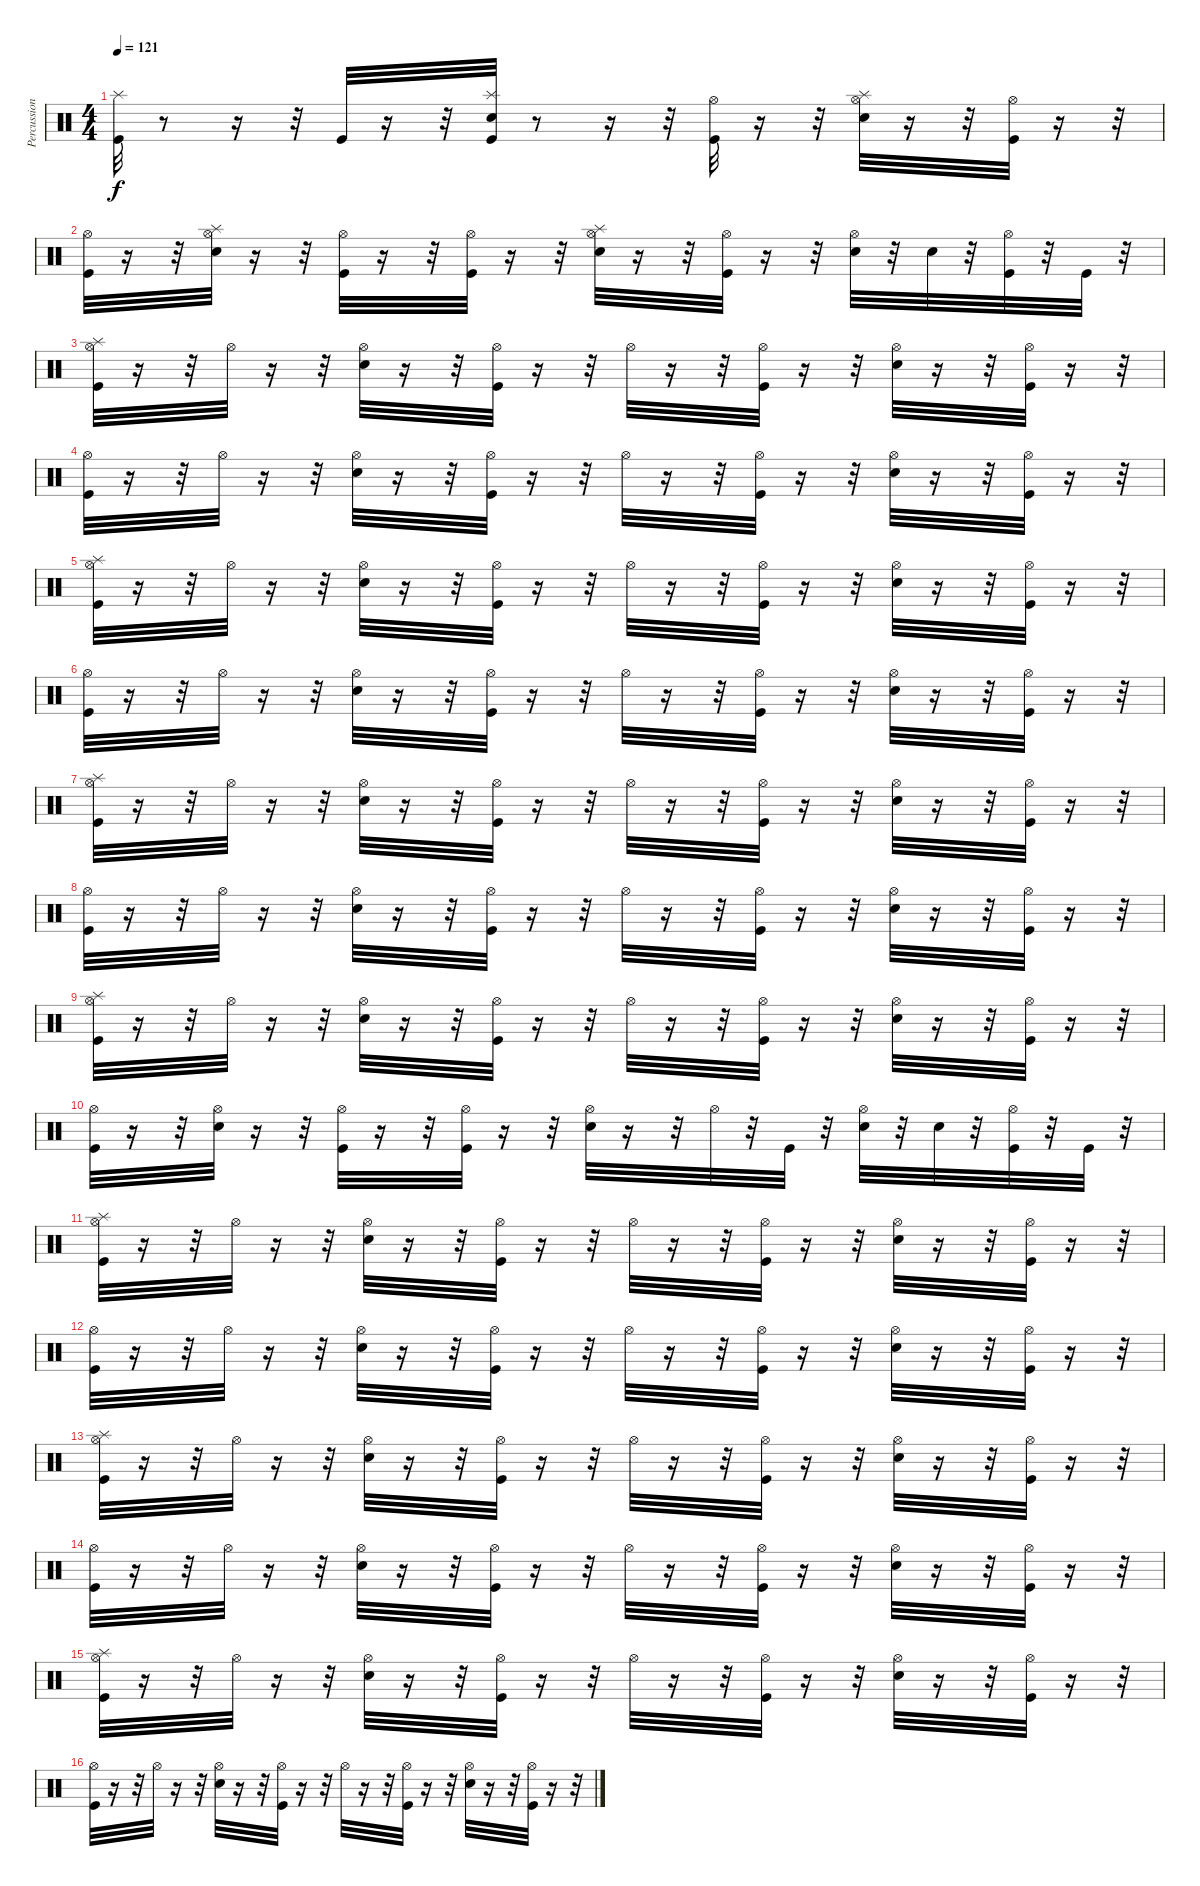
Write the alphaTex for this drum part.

\track ("Percussion" "Percussion") {instrument percussion}
\staff {score}
\articulation defaults
\ts (4 4)
\tempo 121
\clef neutral
\ks c
("Kick (hit)" "Splash (hit)").32{dy f} r.8 r.16 r.32 "Kick (hit)".32 r.16 r.32 ("Snare (hit) 2" "Kick (hit)" "Splash (hit)").32 r.8 r.16 r.32 ("Hi-Hat (open)" "Kick (hit)").32 r.16 r.32 ("Hi-Hat (open)" "Splash (hit)" "Snare (hit) 2").32 r.16 r.32 ("Hi-Hat (open)" "Kick (hit)").32 r.16 r.32 |
("Hi-Hat (open)" "Kick (hit)").32 r.16 r.32 ("Hi-Hat (open)" "Splash (hit)" "Snare (hit) 2").32 r.16 r.32 ("Hi-Hat (open)" "Kick (hit)").32 r.16 r.32 ("Hi-Hat (open)" "Kick (hit)").32 r.16 r.32 ("Hi-Hat (open)" "Splash (hit)" "Snare (hit) 2").32 r.16 r.32 ("Hi-Hat (open)" "Kick (hit)").32 r.16 r.32 ("Hi-Hat (open)" "Snare (hit) 2").32 r.32 "Snare (hit) 2".32 r.32 ("Hi-Hat (open)" "Kick (hit)").32 r.32 "Kick (hit)".32 r.32 |
("Hi-Hat (open)" "Splash (hit)" "Kick (hit)").32 r.16 r.32 "Hi-Hat (open)".32 r.16 r.32 ("Hi-Hat (open)" "Snare (hit) 2").32 r.16 r.32 ("Hi-Hat (open)" "Kick (hit)").32 r.16 r.32 "Hi-Hat (open)".32 r.16 r.32 ("Hi-Hat (open)" "Kick (hit)").32 r.16 r.32 ("Hi-Hat (open)" "Snare (hit) 2").32 r.16 r.32 ("Hi-Hat (open)" "Kick (hit)").32 r.16 r.32 |
("Hi-Hat (open)" "Kick (hit)").32 r.16 r.32 "Hi-Hat (open)".32 r.16 r.32 ("Hi-Hat (open)" "Snare (hit) 2").32 r.16 r.32 ("Hi-Hat (open)" "Kick (hit)").32 r.16 r.32 "Hi-Hat (open)".32 r.16 r.32 ("Hi-Hat (open)" "Kick (hit)").32 r.16 r.32 ("Hi-Hat (open)" "Snare (hit) 2").32 r.16 r.32 ("Kick (hit)" "Hi-Hat (open)").32 r.16 r.32 |
("Hi-Hat (open)" "Splash (hit)" "Kick (hit)").32 r.16 r.32 "Hi-Hat (open)".32 r.16 r.32 ("Hi-Hat (open)" "Snare (hit) 2").32 r.16 r.32 ("Hi-Hat (open)" "Kick (hit)").32 r.16 r.32 "Hi-Hat (open)".32 r.16 r.32 ("Hi-Hat (open)" "Kick (hit)").32 r.16 r.32 ("Hi-Hat (open)" "Snare (hit) 2").32 r.16 r.32 ("Hi-Hat (open)" "Kick (hit)").32 r.16 r.32 |
("Hi-Hat (open)" "Kick (hit)").32 r.16 r.32 "Hi-Hat (open)".32 r.16 r.32 ("Hi-Hat (open)" "Snare (hit) 2").32 r.16 r.32 ("Hi-Hat (open)" "Kick (hit)").32 r.16 r.32 "Hi-Hat (open)".32 r.16 r.32 ("Hi-Hat (open)" "Kick (hit)").32 r.16 r.32 ("Hi-Hat (open)" "Snare (hit) 2").32 r.16 r.32 ("Kick (hit)" "Hi-Hat (open)").32 r.16 r.32 |
("Hi-Hat (open)" "Splash (hit)" "Kick (hit)").32 r.16 r.32 "Hi-Hat (open)".32 r.16 r.32 ("Hi-Hat (open)" "Snare (hit) 2").32 r.16 r.32 ("Hi-Hat (open)" "Kick (hit)").32 r.16 r.32 "Hi-Hat (open)".32 r.16 r.32 ("Hi-Hat (open)" "Kick (hit)").32 r.16 r.32 ("Hi-Hat (open)" "Snare (hit) 2").32 r.16 r.32 ("Hi-Hat (open)" "Kick (hit)").32 r.16 r.32 |
("Hi-Hat (open)" "Kick (hit)").32 r.16 r.32 "Hi-Hat (open)".32 r.16 r.32 ("Hi-Hat (open)" "Snare (hit) 2").32 r.16 r.32 ("Hi-Hat (open)" "Kick (hit)").32 r.16 r.32 "Hi-Hat (open)".32 r.16 r.32 ("Hi-Hat (open)" "Kick (hit)").32 r.16 r.32 ("Hi-Hat (open)" "Snare (hit) 2").32 r.16 r.32 ("Kick (hit)" "Hi-Hat (open)").32 r.16 r.32 |
("Hi-Hat (open)" "Splash (hit)" "Kick (hit)").32 r.16 r.32 "Hi-Hat (open)".32 r.16 r.32 ("Hi-Hat (open)" "Snare (hit) 2").32 r.16 r.32 ("Hi-Hat (open)" "Kick (hit)").32 r.16 r.32 "Hi-Hat (open)".32 r.16 r.32 ("Hi-Hat (open)" "Kick (hit)").32 r.16 r.32 ("Hi-Hat (open)" "Snare (hit) 2").32 r.16 r.32 ("Hi-Hat (open)" "Kick (hit)").32 r.16 r.32 |
("Hi-Hat (open)" "Kick (hit)").32 r.16 r.32 ("Snare (hit) 2" "Hi-Hat (open)").32 r.16 r.32 ("Kick (hit)" "Hi-Hat (open)").32 r.16 r.32 ("Hi-Hat (open)" "Kick (hit)").32 r.16 r.32 ("Snare (hit) 2" "Hi-Hat (open)").32 r.16 r.32 "Hi-Hat (open)".32 r.32 "Kick (hit)".32 r.32 ("Snare (hit) 2" "Hi-Hat (open)").32 r.32 "Snare (hit) 2".32 r.32 ("Kick (hit)" "Hi-Hat (open)").32 r.32 "Kick (hit)".32 r.32 |
("Hi-Hat (open)" "Splash (hit)" "Kick (hit)").32 r.16 r.32 "Hi-Hat (open)".32 r.16 r.32 ("Hi-Hat (open)" "Snare (hit) 2").32 r.16 r.32 ("Hi-Hat (open)" "Kick (hit)").32 r.16 r.32 "Hi-Hat (open)".32 r.16 r.32 ("Hi-Hat (open)" "Kick (hit)").32 r.16 r.32 ("Hi-Hat (open)" "Snare (hit) 2").32 r.16 r.32 ("Hi-Hat (open)" "Kick (hit)").32 r.16 r.32 |
("Hi-Hat (open)" "Kick (hit)").32 r.16 r.32 "Hi-Hat (open)".32 r.16 r.32 ("Hi-Hat (open)" "Snare (hit) 2").32 r.16 r.32 ("Hi-Hat (open)" "Kick (hit)").32 r.16 r.32 "Hi-Hat (open)".32 r.16 r.32 ("Hi-Hat (open)" "Kick (hit)").32 r.16 r.32 ("Hi-Hat (open)" "Snare (hit) 2").32 r.16 r.32 ("Kick (hit)" "Hi-Hat (open)").32 r.16 r.32 |
("Hi-Hat (open)" "Splash (hit)" "Kick (hit)").32 r.16 r.32 "Hi-Hat (open)".32 r.16 r.32 ("Hi-Hat (open)" "Snare (hit) 2").32 r.16 r.32 ("Hi-Hat (open)" "Kick (hit)").32 r.16 r.32 "Hi-Hat (open)".32 r.16 r.32 ("Hi-Hat (open)" "Kick (hit)").32 r.16 r.32 ("Hi-Hat (open)" "Snare (hit) 2").32 r.16 r.32 ("Hi-Hat (open)" "Kick (hit)").32 r.16 r.32 |
("Hi-Hat (open)" "Kick (hit)").32 r.16 r.32 "Hi-Hat (open)".32 r.16 r.32 ("Snare (hit) 2" "Hi-Hat (open)").32 r.16 r.32 ("Kick (hit)" "Hi-Hat (open)").32 r.16 r.32 "Hi-Hat (open)".32 r.16 r.32 ("Kick (hit)" "Hi-Hat (open)").32 r.16 r.32 ("Hi-Hat (open)" "Snare (hit) 2").32 r.16 r.32 ("Kick (hit)" "Hi-Hat (open)").32 r.16 r.32 |
("Hi-Hat (open)" "Splash (hit)" "Kick (hit)").32 r.16 r.32 "Hi-Hat (open)".32 r.16 r.32 ("Hi-Hat (open)" "Snare (hit) 2").32 r.16 r.32 ("Hi-Hat (open)" "Kick (hit)").32 r.16 r.32 "Hi-Hat (open)".32 r.16 r.32 ("Hi-Hat (open)" "Kick (hit)").32 r.16 r.32 ("Hi-Hat (open)" "Snare (hit) 2").32 r.16 r.32 ("Hi-Hat (open)" "Kick (hit)").32 r.16 r.32 |
("Hi-Hat (open)" "Kick (hit)").32 r.16 r.32 "Hi-Hat (open)".32 r.16 r.32 ("Snare (hit) 2" "Hi-Hat (open)").32 r.16 r.32 ("Kick (hit)" "Hi-Hat (open)").32 r.16 r.32 "Hi-Hat (open)".32 r.16 r.32 ("Kick (hit)" "Hi-Hat (open)").32 r.16 r.32 ("Hi-Hat (open)" "Snare (hit) 2").32 r.16 r.32 ("Kick (hit)" "Hi-Hat (open)").32 r.16 r.32
